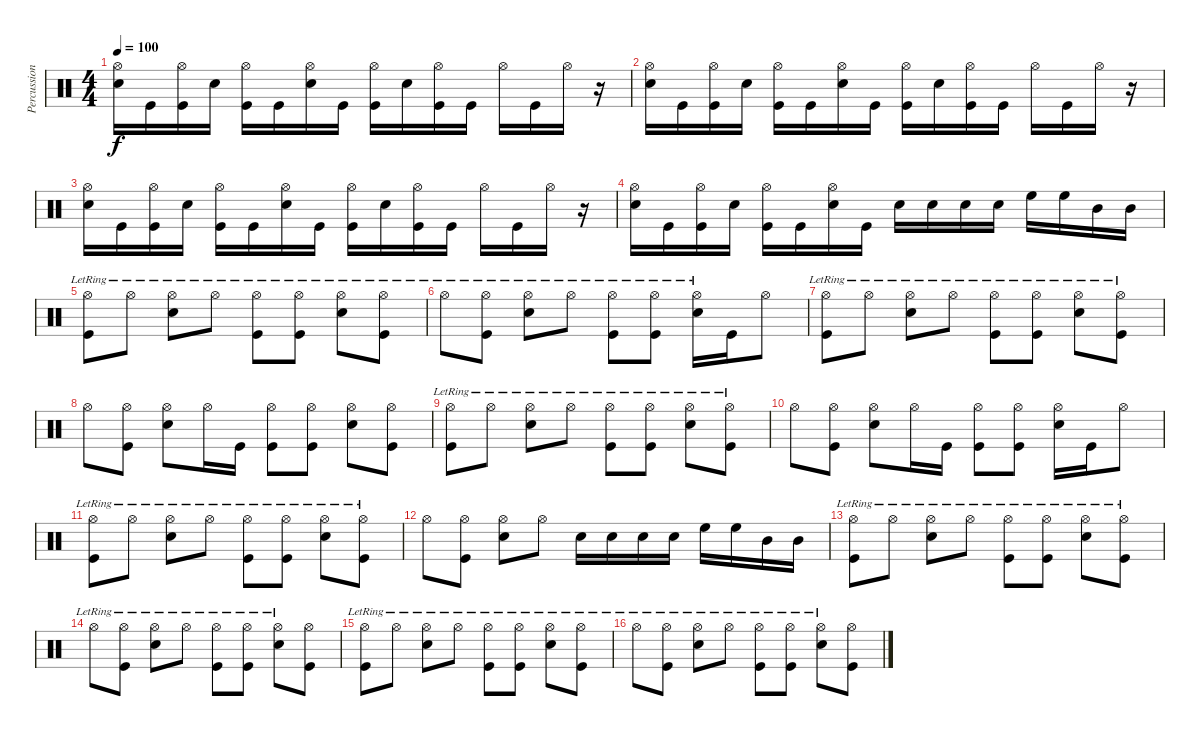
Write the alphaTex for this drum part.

\track ("Percussion" "Percussion") {instrument percussion}
\staff {score}
\articulation defaults
\ts (4 4)
\tempo 100
\clef neutral
\ks c
("Hi-Hat (open)" "Electric Snare (hit)").16{dy f} "Kick (hit)".16 ("Hi-Hat (open)" "Kick (hit)").16 "Electric Snare (hit)".16 ("Hi-Hat (open)" "Kick (hit)").16 "Kick (hit)".16 ("Hi-Hat (open)" "Electric Snare (hit)").16 "Kick (hit)".16 ("Hi-Hat (open)" "Kick (hit)").16 "Electric Snare (hit)".16 ("Hi-Hat (open)" "Kick (hit)").16 "Kick (hit)".16 "Hi-Hat (open)".16 "Kick (hit)".16 "Hi-Hat (open)".16 r.16 |
("Hi-Hat (open)" "Electric Snare (hit)").16 "Kick (hit)".16 ("Hi-Hat (open)" "Kick (hit)").16 "Electric Snare (hit)".16 ("Hi-Hat (open)" "Kick (hit)").16 "Kick (hit)".16 ("Hi-Hat (open)" "Electric Snare (hit)").16 "Kick (hit)".16 ("Hi-Hat (open)" "Kick (hit)").16 "Electric Snare (hit)".16 ("Hi-Hat (open)" "Kick (hit)").16 "Kick (hit)".16 "Hi-Hat (open)".16 "Kick (hit)".16 "Hi-Hat (open)".16 r.16 |
("Hi-Hat (open)" "Electric Snare (hit)").16 "Kick (hit)".16 ("Hi-Hat (open)" "Kick (hit)").16 "Electric Snare (hit)".16 ("Hi-Hat (open)" "Kick (hit)").16 "Kick (hit)".16 ("Hi-Hat (open)" "Electric Snare (hit)").16 "Kick (hit)".16 ("Hi-Hat (open)" "Kick (hit)").16 "Electric Snare (hit)".16 ("Hi-Hat (open)" "Kick (hit)").16 "Kick (hit)".16 "Hi-Hat (open)".16 "Kick (hit)".16 "Hi-Hat (open)".16 r.16 |
("Hi-Hat (open)" "Electric Snare (hit)").16 "Kick (hit)".16 ("Hi-Hat (open)" "Kick (hit)").16 "Electric Snare (hit)".16 ("Hi-Hat (open)" "Kick (hit)").16 "Kick (hit)".16 ("Hi-Hat (open)" "Electric Snare (hit)").16 "Kick (hit)".16 "Electric Snare (hit)".16 "Electric Snare (hit)".16 "Electric Snare (hit)".16 "Electric Snare (hit)".16 "High Floor Tom (hit)".16 "High Floor Tom (hit)".16 "Mid Tom (hit)".16 "Mid Tom (hit)".16 |
("Hi-Hat (open)"{lr} "Kick (hit)").8 "Hi-Hat (open)"{lr}.8 ("Hi-Hat (open)"{lr} "Electric Snare (hit)").8 "Hi-Hat (open)"{lr}.8 ("Hi-Hat (open)"{lr} "Kick (hit)").8 ("Hi-Hat (open)"{lr} "Kick (hit)").8 ("Hi-Hat (open)"{lr} "Electric Snare (hit)").8 ("Hi-Hat (open)"{lr} "Kick (hit)").8 |
"Hi-Hat (open)"{lr}.8 ("Hi-Hat (open)"{lr} "Kick (hit)").8 ("Hi-Hat (open)"{lr} "Electric Snare (hit)").8 "Hi-Hat (open)"{lr}.8 ("Hi-Hat (open)"{lr} "Kick (hit)").8 ("Hi-Hat (open)"{lr} "Kick (hit)").8 ("Hi-Hat (open)"{lr} "Electric Snare (hit)").16 "Kick (hit)".16 "Hi-Hat (open)".8 |
("Hi-Hat (open)"{lr} "Kick (hit)").8 "Hi-Hat (open)"{lr}.8 ("Hi-Hat (open)"{lr} "Electric Snare (hit)").8 "Hi-Hat (open)"{lr}.8 ("Hi-Hat (open)"{lr} "Kick (hit)").8 ("Hi-Hat (open)"{lr} "Kick (hit)").8 ("Hi-Hat (open)"{lr} "Electric Snare (hit)").8 ("Hi-Hat (open)"{lr} "Kick (hit)").8 |
"Hi-Hat (open)".8 ("Hi-Hat (open)" "Kick (hit)").8 ("Hi-Hat (open)" "Electric Snare (hit)").8 "Hi-Hat (open)".16 "Kick (hit)".16 ("Hi-Hat (open)" "Kick (hit)").8 ("Hi-Hat (open)" "Kick (hit)").8 ("Hi-Hat (open)" "Electric Snare (hit)").8 ("Hi-Hat (open)" "Kick (hit)").8 |
("Hi-Hat (open)"{lr} "Kick (hit)").8 "Hi-Hat (open)"{lr}.8 ("Hi-Hat (open)"{lr} "Electric Snare (hit)").8 "Hi-Hat (open)"{lr}.8 ("Hi-Hat (open)"{lr} "Kick (hit)").8 ("Hi-Hat (open)"{lr} "Kick (hit)").8 ("Hi-Hat (open)"{lr} "Electric Snare (hit)").8 ("Hi-Hat (open)"{lr} "Kick (hit)").8 |
"Hi-Hat (open)".8 ("Hi-Hat (open)" "Kick (hit)").8 ("Hi-Hat (open)" "Electric Snare (hit)").8 "Hi-Hat (open)".16 "Kick (hit)".16 ("Hi-Hat (open)" "Kick (hit)").8 ("Hi-Hat (open)" "Kick (hit)").8 ("Hi-Hat (open)" "Electric Snare (hit)").16 "Kick (hit)".16 "Hi-Hat (open)".8 |
("Hi-Hat (open)"{lr} "Kick (hit)").8 "Hi-Hat (open)"{lr}.8 ("Hi-Hat (open)"{lr} "Electric Snare (hit)").8 "Hi-Hat (open)"{lr}.8 ("Hi-Hat (open)"{lr} "Kick (hit)").8 ("Hi-Hat (open)"{lr} "Kick (hit)").8 ("Hi-Hat (open)"{lr} "Electric Snare (hit)").8 ("Hi-Hat (open)"{lr} "Kick (hit)").8 |
"Hi-Hat (open)".8 ("Hi-Hat (open)" "Kick (hit)").8 ("Hi-Hat (open)" "Electric Snare (hit)").8 "Hi-Hat (open)".8 "Electric Snare (hit)".16 "Electric Snare (hit)".16 "Electric Snare (hit)".16 "Electric Snare (hit)".16 "High Floor Tom (hit)".16 "High Floor Tom (hit)".16 "Mid Tom (hit)".16 "Mid Tom (hit)".16 |
("Hi-Hat (open)"{lr} "Kick (hit)").8 "Hi-Hat (open)"{lr}.8 ("Hi-Hat (open)"{lr} "Electric Snare (hit)").8 "Hi-Hat (open)"{lr}.8 ("Hi-Hat (open)"{lr} "Kick (hit)").8 ("Hi-Hat (open)"{lr} "Kick (hit)").8 ("Hi-Hat (open)"{lr} "Electric Snare (hit)").8 ("Hi-Hat (open)"{lr} "Kick (hit)").8 |
"Hi-Hat (open)"{lr}.8 ("Hi-Hat (open)"{lr} "Kick (hit)").8 ("Hi-Hat (open)"{lr} "Electric Snare (hit)").8 "Hi-Hat (open)"{lr}.8 ("Hi-Hat (open)"{lr} "Kick (hit)").8 ("Hi-Hat (open)"{lr} "Kick (hit)").8 ("Hi-Hat (open)"{lr} "Electric Snare (hit)").8 ("Hi-Hat (open)" "Kick (hit)").8 |
("Hi-Hat (open)"{lr} "Kick (hit)").8 "Hi-Hat (open)"{lr}.8 ("Hi-Hat (open)"{lr} "Electric Snare (hit)").8 "Hi-Hat (open)"{lr}.8 ("Hi-Hat (open)"{lr} "Kick (hit)").8 ("Hi-Hat (open)"{lr} "Kick (hit)").8 ("Hi-Hat (open)"{lr} "Electric Snare (hit)").8 ("Hi-Hat (open)"{lr} "Kick (hit)").8 |
"Hi-Hat (open)"{lr}.8 ("Hi-Hat (open)"{lr} "Kick (hit)").8 ("Hi-Hat (open)"{lr} "Electric Snare (hit)").8 "Hi-Hat (open)"{lr}.8 ("Hi-Hat (open)"{lr} "Kick (hit)").8 ("Hi-Hat (open)"{lr} "Kick (hit)").8 ("Hi-Hat (open)"{lr} "Electric Snare (hit)").8 ("Hi-Hat (open)" "Kick (hit)").8
